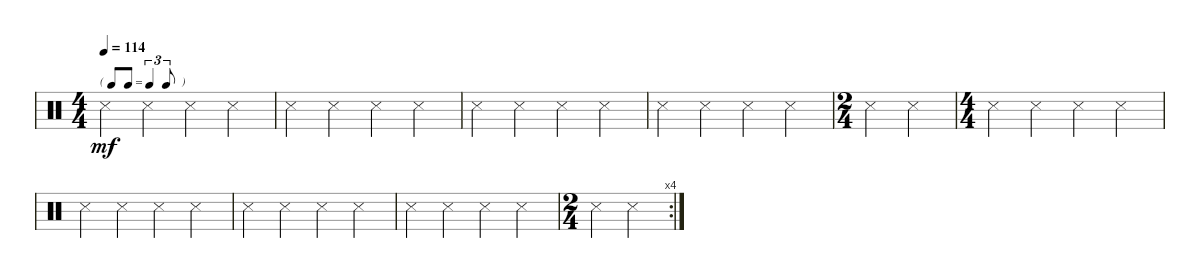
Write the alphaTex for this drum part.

\defaultSystemsLayout 4
\bracketExtendMode groupsimilarinstruments
\singleTrackTrackNamePolicy hidden
\multiTrackTrackNamePolicy hidden
\firstSystemTrackNameOrientation horizontal
\otherSystemsTrackNameOrientation horizontal
\defaultBarNumberDisplay Hide
\track ("Drumkit" "Drums") {multiBarRest instrument percussion}
\staff {score}
\articulation defaults
\ts (4 4)
\tf triplet8th
\tempo 114
\clef neutral
\ks c "Snare (side stick) 3".4{dy mf} "Snare (side stick) 3".4 "Snare (side stick) 3".4 "Snare (side stick) 3".4
|
"Snare (side stick) 3".4 "Snare (side stick) 3".4 "Snare (side stick) 3".4 "Snare (side stick) 3".4 |
"Snare (side stick) 3".4 "Snare (side stick) 3".4 "Snare (side stick) 3".4 "Snare (side stick) 3".4 |
"Snare (side stick) 3".4 "Snare (side stick) 3".4 "Snare (side stick) 3".4 "Snare (side stick) 3".4 |
\ts (2 4)
"Snare (side stick) 3".4 "Snare (side stick) 3".4 |
\ts (4 4)
"Snare (side stick) 3".4 "Snare (side stick) 3".4 "Snare (side stick) 3".4 "Snare (side stick) 3".4 |
"Snare (side stick) 3".4 "Snare (side stick) 3".4 "Snare (side stick) 3".4 "Snare (side stick) 3".4 |
"Snare (side stick) 3".4 "Snare (side stick) 3".4 "Snare (side stick) 3".4 "Snare (side stick) 3".4 |
"Snare (side stick) 3".4 "Snare (side stick) 3".4 "Snare (side stick) 3".4 "Snare (side stick) 3".4 |
\rc 4
\ts (2 4)
"Snare (side stick) 3".4 "Snare (side stick) 3".4
